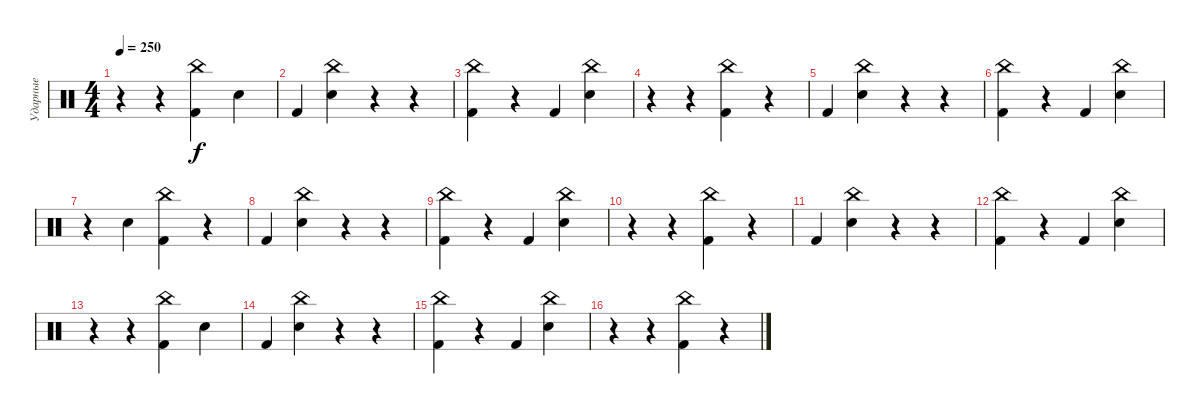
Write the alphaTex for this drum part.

\track ("Ударные" "Ударные") {instrument percussion}
\staff {score}
\articulation defaults
\ts (4 4)
\tempo 250
\clef neutral
\ks c
r.4{dy f} r.4 ("China (hit)" "Kick (hit) 2").4 "Snare (hit) 2".4 |
"Kick (hit) 2".4 ("Snare (hit) 2" "China (hit)").4 r.4 r.4 |
("China (hit)" "Kick (hit) 2").4 r.4 "Kick (hit) 2".4 ("Snare (hit) 2" "China (hit)").4 |
r.4 r.4 ("China (hit)" "Kick (hit) 2").4 r.4 |
"Kick (hit) 2".4 ("Snare (hit) 2" "China (hit)").4 r.4 r.4 |
("China (hit)" "Kick (hit) 2").4 r.4 "Kick (hit) 2".4 ("Snare (hit) 2" "China (hit)").4 |
r.4 "Snare (hit) 2".4 ("China (hit)" "Kick (hit) 2").4 r.4 |
"Kick (hit) 2".4 ("Snare (hit) 2" "China (hit)").4 r.4 r.4 |
("China (hit)" "Kick (hit) 2").4 r.4 "Kick (hit) 2".4 ("Snare (hit) 2" "China (hit)").4 |
r.4 r.4 ("China (hit)" "Kick (hit) 2").4 r.4 |
"Kick (hit) 2".4 ("Snare (hit) 2" "China (hit)").4 r.4 r.4 |
("China (hit)" "Kick (hit) 2").4 r.4 "Kick (hit) 2".4 ("Snare (hit) 2" "China (hit)").4 |
r.4 r.4 ("China (hit)" "Kick (hit) 2").4 "Snare (hit) 2".4 |
"Kick (hit) 2".4 ("Snare (hit) 2" "China (hit)").4 r.4 r.4 |
("China (hit)" "Kick (hit) 2").4 r.4 "Kick (hit) 2".4 ("Snare (hit) 2" "China (hit)").4 |
r.4 r.4 ("China (hit)" "Kick (hit) 2").4 r.4
